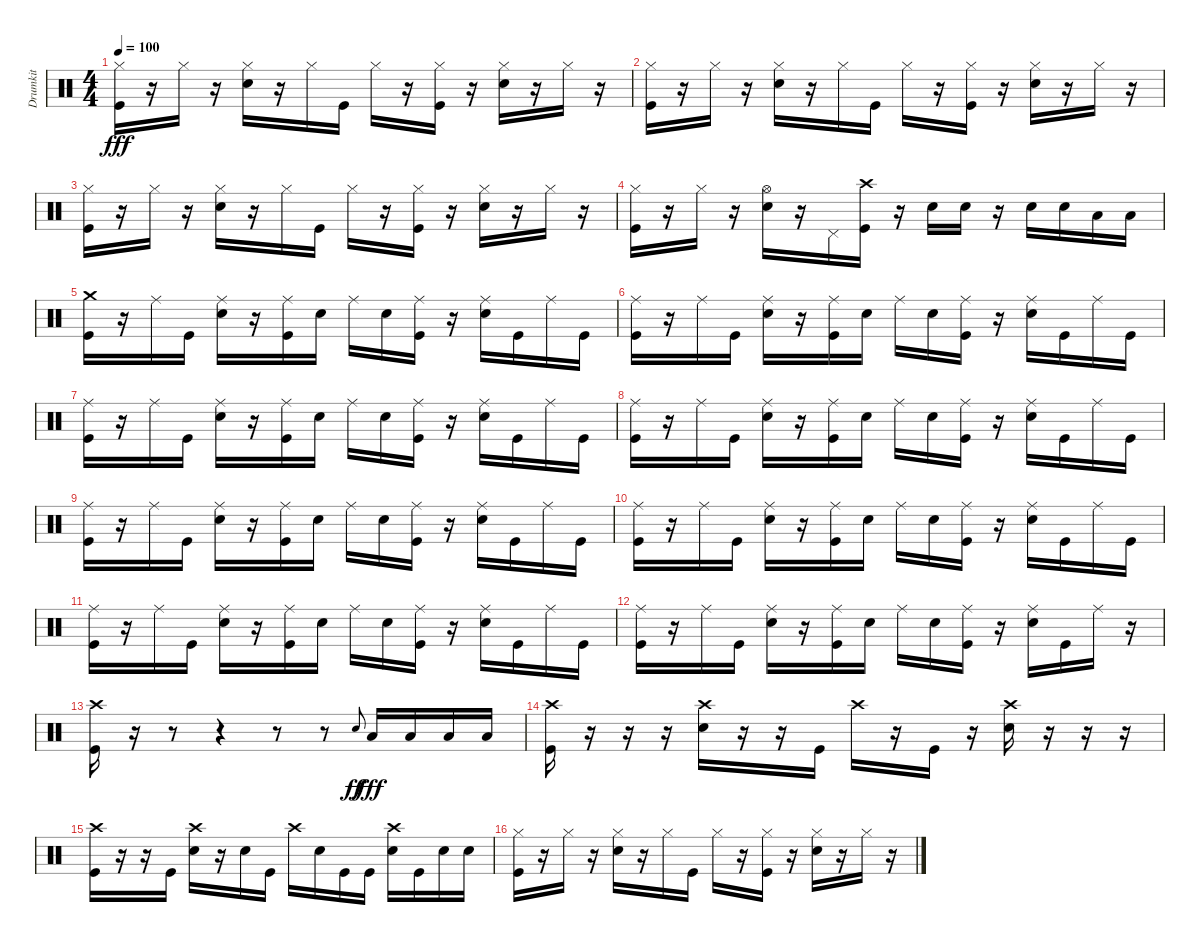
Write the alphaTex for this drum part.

\track ("Drumkit" "Drumkit") {instrument percussion}
\staff {score}
\articulation defaults
\ts (4 4)
\tempo 100
\clef neutral
\ks c
("Hi-Hat (closed)" "Kick (hit)").16{dy fff} r.16 "Hi-Hat (closed)".16 r.16 ("Hi-Hat (closed)" "Snare (hit) 2").16 r.16 "Hi-Hat (closed)".16 "Kick (hit)".16 "Hi-Hat (closed)".16 r.16 ("Hi-Hat (closed)" "Kick (hit)").16 r.16 ("Hi-Hat (closed)" "Snare (hit) 2").16 r.16 "Hi-Hat (closed)".16 r.16 |
("Hi-Hat (closed)" "Kick (hit)").16 r.16 "Hi-Hat (closed)".16 r.16 ("Hi-Hat (closed)" "Snare (hit) 2").16 r.16 "Hi-Hat (closed)".16 "Kick (hit)".16 "Hi-Hat (closed)".16 r.16 ("Hi-Hat (closed)" "Kick (hit)").16 r.16 ("Hi-Hat (closed)" "Snare (hit) 2").16 r.16 "Hi-Hat (closed)".16 r.16 |
("Hi-Hat (closed)" "Kick (hit)").16 r.16 "Hi-Hat (closed)".16 r.16 ("Hi-Hat (closed)" "Snare (hit) 2").16 r.16 "Hi-Hat (closed)".16 "Kick (hit)".16 "Hi-Hat (closed)".16 r.16 ("Hi-Hat (closed)" "Kick (hit)").16 r.16 ("Hi-Hat (closed)" "Snare (hit) 2").16 r.16 "Hi-Hat (closed)".16 r.16 |
("Hi-Hat (closed)" "Kick (hit)").16 r.16 "Hi-Hat (closed)".16 r.16 ("Hi-Hat (open)" "Snare (hit) 2").16 r.16 "Pedal Hi-Hat (hit)".16 ("Crash high (hit)" "Kick (hit)").16 r.16 "Snare (hit) 2".16 "Snare (hit) 2".16 r.16 "Snare (hit) 2".16 "Snare (hit) 2".16 "Low Tom (hit)".16 "Low Tom (hit)".16 |
("Crash medium (hit)" "Kick (hit)").16 r.16 "Ride (middle)".16 "Kick (hit)".16 ("Ride (middle)" "Snare (hit) 2").16 r.16 ("Ride (middle)" "Kick (hit)").16 "Snare (hit) 2".16 "Ride (middle)".16 "Snare (hit) 2".16 ("Ride (middle)" "Kick (hit)").16 r.16 ("Ride (middle)" "Snare (hit) 2").16 "Kick (hit)".16 "Ride (middle)".16 "Kick (hit)".16 |
("Ride (middle)" "Kick (hit)").16 r.16 "Ride (middle)".16 "Kick (hit)".16 ("Ride (middle)" "Snare (hit) 2").16 r.16 ("Ride (middle)" "Kick (hit)").16 "Snare (hit) 2".16 "Ride (middle)".16 "Snare (hit) 2".16 ("Ride (middle)" "Kick (hit)").16 r.16 ("Ride (middle)" "Snare (hit) 2").16 "Kick (hit)".16 "Ride (middle)".16 "Kick (hit)".16 |
("Ride (middle)" "Kick (hit)").16 r.16 "Ride (middle)".16 "Kick (hit)".16 ("Ride (middle)" "Snare (hit) 2").16 r.16 ("Ride (middle)" "Kick (hit)").16 "Snare (hit) 2".16 "Ride (middle)".16 "Snare (hit) 2".16 ("Ride (middle)" "Kick (hit)").16 r.16 ("Ride (middle)" "Snare (hit) 2").16 "Kick (hit)".16 "Ride (middle)".16 "Kick (hit)".16 |
("Ride (middle)" "Kick (hit)").16 r.16 "Ride (middle)".16 "Kick (hit)".16 ("Ride (middle)" "Snare (hit) 2").16 r.16 ("Ride (middle)" "Kick (hit)").16 "Snare (hit) 2".16 "Ride (middle)".16 "Snare (hit) 2".16 ("Ride (middle)" "Kick (hit)").16 r.16 ("Ride (middle)" "Snare (hit) 2").16 "Kick (hit)".16 "Ride (middle)".16 "Kick (hit)".16 |
("Ride (middle)" "Kick (hit)").16 r.16 "Ride (middle)".16 "Kick (hit)".16 ("Ride (middle)" "Snare (hit) 2").16 r.16 ("Ride (middle)" "Kick (hit)").16 "Snare (hit) 2".16 "Ride (middle)".16 "Snare (hit) 2".16 ("Ride (middle)" "Kick (hit)").16 r.16 ("Ride (middle)" "Snare (hit) 2").16 "Kick (hit)".16 "Ride (middle)".16 "Kick (hit)".16 |
("Ride (middle)" "Kick (hit)").16 r.16 "Ride (middle)".16 "Kick (hit)".16 ("Ride (middle)" "Snare (hit) 2").16 r.16 ("Ride (middle)" "Kick (hit)").16 "Snare (hit) 2".16 "Ride (middle)".16 "Snare (hit) 2".16 ("Ride (middle)" "Kick (hit)").16 r.16 ("Ride (middle)" "Snare (hit) 2").16 "Kick (hit)".16 "Ride (middle)".16 "Kick (hit)".16 |
("Ride (middle)" "Kick (hit)").16 r.16 "Ride (middle)".16 "Kick (hit)".16 ("Ride (middle)" "Snare (hit) 2").16 r.16 ("Ride (middle)" "Kick (hit)").16 "Snare (hit) 2".16 "Ride (middle)".16 "Snare (hit) 2".16 ("Ride (middle)" "Kick (hit)").16 r.16 ("Ride (middle)" "Snare (hit) 2").16 "Kick (hit)".16 "Ride (middle)".16 "Kick (hit)".16 |
("Ride (middle)" "Kick (hit)").16 r.16 "Ride (middle)".16 "Kick (hit)".16 ("Ride (middle)" "Snare (hit) 2").16 r.16 ("Ride (middle)" "Kick (hit)").16 "Snare (hit) 2".16 "Ride (middle)".16 "Snare (hit) 2".16 ("Ride (middle)" "Kick (hit)").16 r.16 ("Ride (middle)" "Snare (hit) 2").16 "Kick (hit)".16 "Ride (middle)".16 r.16 |
("Crash high (hit)" "Kick (hit)").16 r.16 r.8 r.4 r.8 r.8 "Snare (hit)".8{gr onbeat dy ff} "Low Tom (hit)".16{dy fff} "Low Tom (hit)".16 "Low Floor Tom (hit)".16 "Low Floor Tom (hit)".16 |
("Crash high (hit)" "Kick (hit)").16 r.16 r.16 r.16 ("Crash high (hit)" "Snare (hit) 2").16 r.16 r.16 "Kick (hit)".16 "Crash high (hit)".16 r.16 "Kick (hit)".16 r.16 ("Crash high (hit)" "Snare (hit) 2").16 r.16 r.16 r.16 |
("Crash high (hit)" "Kick (hit)").16 r.16 r.16 "Kick (hit)".16 ("Crash high (hit)" "Snare (hit) 2").16 r.16 "Snare (hit) 2".16 "Kick (hit)".16 "Crash high (hit)".16 "Snare (hit) 2".16 "Kick (hit)".16 "Kick (hit)".16 ("Crash high (hit)" "Snare (hit) 2").16 "Kick (hit)".16 "Snare (hit) 2".16 "Snare (hit) 2".16 |
("Hi-Hat (closed)" "Kick (hit)").16 r.16 "Hi-Hat (closed)".16 r.16 ("Hi-Hat (closed)" "Snare (hit) 2").16 r.16 "Hi-Hat (closed)".16 "Kick (hit)".16 "Hi-Hat (closed)".16 r.16 ("Hi-Hat (closed)" "Kick (hit)").16 r.16 ("Hi-Hat (closed)" "Snare (hit) 2").16 r.16 "Hi-Hat (closed)".16 r.16
